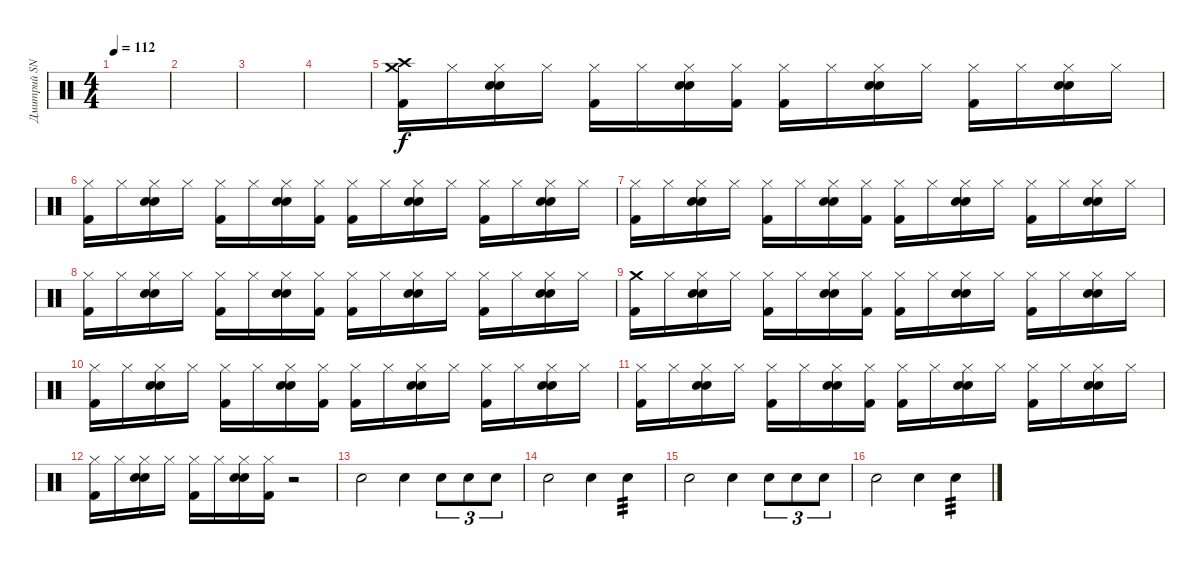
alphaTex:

\track ("Дмитрий SNAKE Хакимов" "Дмитрий SN") {instrument percussion}
\staff {score}
\articulation defaults
\ts (4 4)
\tempo 112
\clef neutral
\ks c
|
|
|
|
("Crash high (hit)" "Crash medium (hit)" "Kick (hit) 2").16 "Hi-Hat (closed)".16 ("Hi-Hat (closed)" "Hand Clap (hit)" "Snare (hit) 2").16 "Hi-Hat (closed)".16 ("Hi-Hat (closed)" "Kick (hit) 2").16 "Hi-Hat (closed)".16 ("Hi-Hat (closed)" "Hand Clap (hit)" "Snare (hit) 2").16 ("Hi-Hat (closed)" "Kick (hit) 2").16 ("Hi-Hat (closed)" "Kick (hit) 2").16 "Hi-Hat (closed)".16 ("Hi-Hat (closed)" "Hand Clap (hit)" "Snare (hit) 2").16 "Hi-Hat (closed)".16 ("Hi-Hat (closed)" "Kick (hit) 2").16 "Hi-Hat (closed)".16 ("Hi-Hat (closed)" "Hand Clap (hit)" "Snare (hit) 2").16 "Hi-Hat (closed)".16 |
("Hi-Hat (closed)" "Kick (hit) 2").16 "Hi-Hat (closed)".16 ("Hi-Hat (closed)" "Hand Clap (hit)" "Snare (hit) 2").16 "Hi-Hat (closed)".16 ("Hi-Hat (closed)" "Kick (hit) 2").16 "Hi-Hat (closed)".16 ("Hi-Hat (closed)" "Hand Clap (hit)" "Snare (hit) 2").16 ("Hi-Hat (closed)" "Kick (hit) 2").16 ("Hi-Hat (closed)" "Kick (hit) 2").16 "Hi-Hat (closed)".16 ("Hi-Hat (closed)" "Hand Clap (hit)" "Snare (hit) 2").16 "Hi-Hat (closed)".16 ("Hi-Hat (closed)" "Kick (hit) 2").16 "Hi-Hat (closed)".16 ("Hi-Hat (closed)" "Hand Clap (hit)" "Snare (hit) 2").16 "Hi-Hat (closed)".16 |
("Hi-Hat (closed)" "Kick (hit) 2").16 "Hi-Hat (closed)".16 ("Hi-Hat (closed)" "Hand Clap (hit)" "Snare (hit) 2").16 "Hi-Hat (closed)".16 ("Hi-Hat (closed)" "Kick (hit) 2").16 "Hi-Hat (closed)".16 ("Hi-Hat (closed)" "Hand Clap (hit)" "Snare (hit) 2").16 ("Hi-Hat (closed)" "Kick (hit) 2").16 ("Hi-Hat (closed)" "Kick (hit) 2").16 "Hi-Hat (closed)".16 ("Hi-Hat (closed)" "Hand Clap (hit)" "Snare (hit) 2").16 "Hi-Hat (closed)".16 ("Hi-Hat (closed)" "Kick (hit) 2").16 "Hi-Hat (closed)".16 ("Hi-Hat (closed)" "Hand Clap (hit)" "Snare (hit) 2").16 "Hi-Hat (closed)".16 |
("Hi-Hat (closed)" "Kick (hit) 2").16 "Hi-Hat (closed)".16 ("Hi-Hat (closed)" "Hand Clap (hit)" "Snare (hit) 2").16 "Hi-Hat (closed)".16 ("Hi-Hat (closed)" "Kick (hit) 2").16 "Hi-Hat (closed)".16 ("Hi-Hat (closed)" "Hand Clap (hit)" "Snare (hit) 2").16 ("Hi-Hat (closed)" "Kick (hit) 2").16 ("Hi-Hat (closed)" "Kick (hit) 2").16 "Hi-Hat (closed)".16 ("Hi-Hat (closed)" "Hand Clap (hit)" "Snare (hit) 2").16 "Hi-Hat (closed)".16 ("Hi-Hat (closed)" "Kick (hit) 2").16 "Hi-Hat (closed)".16 ("Hi-Hat (closed)" "Hand Clap (hit)" "Snare (hit) 2").16 "Hi-Hat (closed)".16 |
("Crash medium (hit)" "Kick (hit) 2").16 "Hi-Hat (closed)".16 ("Hi-Hat (closed)" "Hand Clap (hit)" "Snare (hit) 2").16 "Hi-Hat (closed)".16 ("Hi-Hat (closed)" "Kick (hit) 2").16 "Hi-Hat (closed)".16 ("Hi-Hat (closed)" "Hand Clap (hit)" "Snare (hit) 2").16 ("Hi-Hat (closed)" "Kick (hit) 2").16 ("Hi-Hat (closed)" "Kick (hit) 2").16 "Hi-Hat (closed)".16 ("Hi-Hat (closed)" "Hand Clap (hit)" "Snare (hit) 2").16 "Hi-Hat (closed)".16 ("Hi-Hat (closed)" "Kick (hit) 2").16 "Hi-Hat (closed)".16 ("Hi-Hat (closed)" "Hand Clap (hit)" "Snare (hit) 2").16 "Hi-Hat (closed)".16 |
("Hi-Hat (closed)" "Kick (hit) 2").16 "Hi-Hat (closed)".16 ("Hi-Hat (closed)" "Hand Clap (hit)" "Snare (hit) 2").16 "Hi-Hat (closed)".16 ("Hi-Hat (closed)" "Kick (hit) 2").16 "Hi-Hat (closed)".16 ("Hi-Hat (closed)" "Hand Clap (hit)" "Snare (hit) 2").16 ("Hi-Hat (closed)" "Kick (hit) 2").16 ("Hi-Hat (closed)" "Kick (hit) 2").16 "Hi-Hat (closed)".16 ("Hi-Hat (closed)" "Hand Clap (hit)" "Snare (hit) 2").16 "Hi-Hat (closed)".16 ("Hi-Hat (closed)" "Kick (hit) 2").16 "Hi-Hat (closed)".16 ("Hi-Hat (closed)" "Hand Clap (hit)" "Snare (hit) 2").16 "Hi-Hat (closed)".16 |
("Hi-Hat (closed)" "Kick (hit) 2").16 "Hi-Hat (closed)".16 ("Hi-Hat (closed)" "Hand Clap (hit)" "Snare (hit) 2").16 "Hi-Hat (closed)".16 ("Hi-Hat (closed)" "Kick (hit) 2").16 "Hi-Hat (closed)".16 ("Hi-Hat (closed)" "Hand Clap (hit)" "Snare (hit) 2").16 ("Hi-Hat (closed)" "Kick (hit) 2").16 ("Hi-Hat (closed)" "Kick (hit) 2").16 "Hi-Hat (closed)".16 ("Hi-Hat (closed)" "Hand Clap (hit)" "Snare (hit) 2").16 "Hi-Hat (closed)".16 ("Hi-Hat (closed)" "Kick (hit) 2").16 "Hi-Hat (closed)".16 ("Hi-Hat (closed)" "Hand Clap (hit)" "Snare (hit) 2").16 "Hi-Hat (closed)".16 |
("Hi-Hat (closed)" "Kick (hit) 2").16 "Hi-Hat (closed)".16 ("Hi-Hat (closed)" "Hand Clap (hit)" "Snare (hit) 2").16 "Hi-Hat (closed)".16 ("Hi-Hat (closed)" "Kick (hit) 2").16 "Hi-Hat (closed)".16 ("Hi-Hat (closed)" "Hand Clap (hit)" "Snare (hit) 2").16 ("Hi-Hat (closed)" "Kick (hit) 2").16 r.2 |
"Snare (hit) 2".2 "Snare (hit) 2".4 "Snare (hit) 2".8{tu (3 2)} "Snare (hit) 2".8{tu (3 2)} "Snare (hit) 2".8{tu (3 2)} |
"Snare (hit) 2".2 "Snare (hit) 2".4 "Snare (hit) 2".4{tp 3} |
"Snare (hit) 2".2 "Snare (hit) 2".4 "Snare (hit) 2".8{tu (3 2)} "Snare (hit) 2".8{tu (3 2)} "Snare (hit) 2".8{tu (3 2)} |
"Snare (hit) 2".2 "Snare (hit) 2".4 "Snare (hit) 2".4{tp 3}
